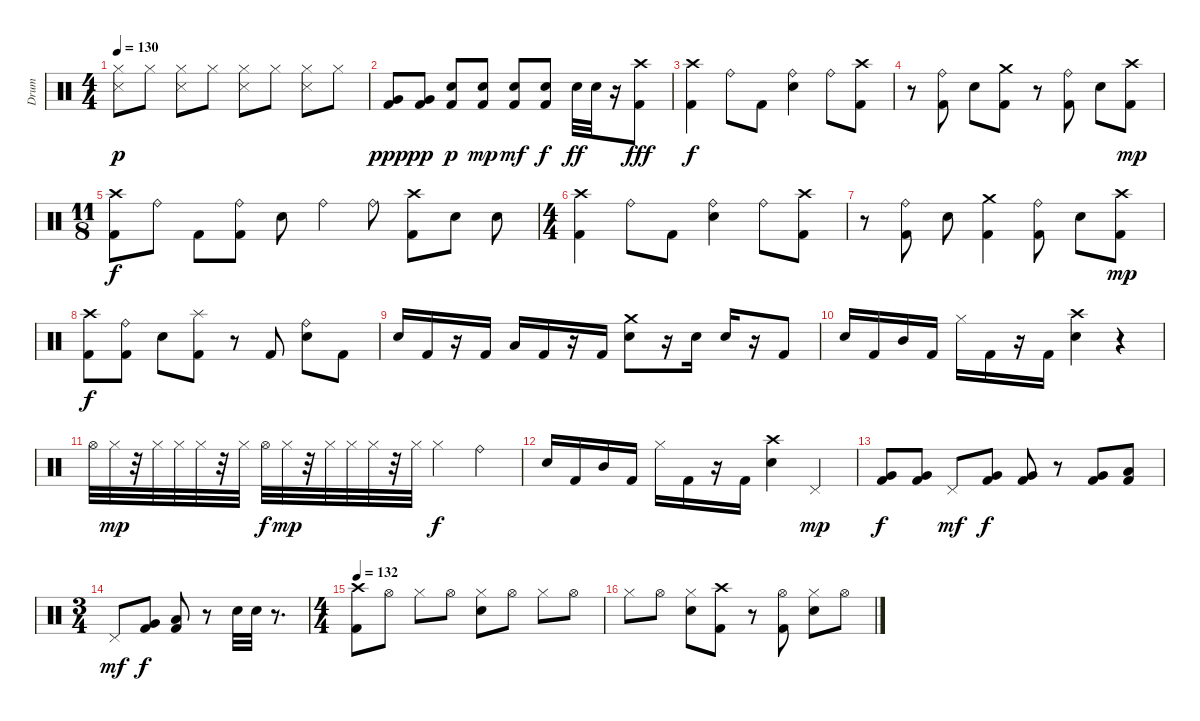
\track ("Drum" "Drum") {instrument percussion}
\staff {score}
\articulation defaults
\ts (4 4)
\tempo 130
\clef neutral
\ks c
("Snare (side stick) 3" "Hi-Hat (closed)").8{dy p} "Hi-Hat (closed)".8 ("Snare (side stick) 3" "Hi-Hat (closed)").8 "Hi-Hat (closed)".8 ("Snare (side stick) 3" "Hi-Hat (closed)").8 "Hi-Hat (closed)".8 ("Snare (side stick) 3" "Hi-Hat (closed)").8 "Hi-Hat (closed)".8 |
("Kick (hit) 2" "Very Low Tom (hit)").8{dy ppp} ("Very Low Tom (hit)" "Kick (hit) 2").8{dy pp} ("Electric Snare (hit)" "Kick (hit) 2").8{dy p} ("Electric Snare (hit)" "Kick (hit) 2").8{dy mp} ("Electric Snare (hit)" "Kick (hit) 2").8{dy mf} ("Electric Snare (hit)" "Kick (hit) 2").8{dy f} "Electric Snare (hit)".32{dy ff} "Electric Snare (hit)".32 r.16 ("Crash high (hit)" "Kick (hit) 2").8{dy fff} |
("Kick (hit) 2" "Crash high (hit)").4{dy f} "Ride (bell)".8 "Kick (hit) 2".8 ("Ride (bell)" "Electric Snare (hit)").4 "Ride (bell)".8 ("Kick (hit) 2" "Crash high (hit)").8 |
r.8 ("Kick (hit) 2" "Ride (bell)").8 "Electric Snare (hit)".8 ("Kick (hit) 2" "Crash medium (hit)").8 r.8 ("Kick (hit) 2" "Ride (bell)").8 "Electric Snare (hit)".8 ("Kick (hit) 2" "Crash high (hit)").8{dy mp} |
\ts (11 8)
("Crash high (hit)" "Kick (hit) 2").8{dy f} "Ride (bell)".8 "Kick (hit) 2".8 ("Kick (hit) 2" "Ride (bell)").8 "Electric Snare (hit)".8 "Ride (bell)".4 "Ride (bell)".8 ("Crash high (hit)" "Kick (hit) 2").8 "Electric Snare (hit)".8 "Electric Snare (hit)".8 |
\ts (4 4)
("Crash high (hit)" "Kick (hit) 2").4 "Ride (bell)".8 "Kick (hit) 2".8 ("Ride (bell)" "Electric Snare (hit)").4 "Ride (bell)".8 ("Kick (hit) 2" "Crash high (hit)").8 |
r.8 ("Kick (hit) 2" "Ride (bell)").8 "Electric Snare (hit)".8 ("Kick (hit) 2" "Crash medium (hit)").4 ("Kick (hit) 2" "Ride (bell)").8 "Electric Snare (hit)".8 ("Kick (hit) 2" "Crash high (hit)").8{dy mp} |
("Kick (hit) 2" "Crash high (hit)").8{dy f} ("Kick (hit) 2" "Ride (bell)").8 "Electric Snare (hit)".8 ("Kick (hit) 2" "Splash (hit)").8 r.8 "Kick (hit) 2".8 ("Electric Snare (hit)" "Ride (bell)").8 "Kick (hit) 2".8 |
"Electric Snare (hit)".16 "Kick (hit) 2".16 r.16 "Kick (hit) 2".16 "Low Tom (hit)".16 "Kick (hit) 2".16 r.16 "Kick (hit) 2".16 ("Electric Snare (hit)" "Crash medium (hit)").8 r.16 "Electric Snare (hit)".16 "Electric Snare (hit)".16 r.16 "Kick (hit) 2".8 |
"Electric Snare (hit)".16 "Kick (hit) 2".16 "Mid Tom (hit)".16 "Kick (hit) 2".16 "Hi-Hat (closed)".16 "Kick (hit) 2".16 r.16 "Kick (hit) 2".16 ("Crash high (hit)" "Electric Snare (hit)").4 r.4 |
"Hi-Hat (open)".32 "Hi-Hat (closed)".32{dy mp} r.32 "Hi-Hat (closed)".32 "Hi-Hat (closed)".32 "Hi-Hat (closed)".32 r.32 "Hi-Hat (closed)".32 "Hi-Hat (open)".32{dy f} "Hi-Hat (closed)".32{dy mp} r.32 "Hi-Hat (closed)".32 "Hi-Hat (closed)".32 "Hi-Hat (closed)".32 r.32 "Hi-Hat (closed)".32 "Hi-Hat (closed)".4{dy f} "Ride (bell)".4 |
"Electric Snare (hit)".16 "Kick (hit) 2".16 "Mid Tom (hit)".16 "Kick (hit) 2".16 "Hi-Hat (closed)".16 "Kick (hit) 2".16 r.16 "Kick (hit) 2".16 ("Crash high (hit)" "Electric Snare (hit)").4 "Pedal Hi-Hat (hit)".4{dy mp} |
("Kick (hit) 2" "Very Low Tom (hit)").8{dy f} ("Very Low Tom (hit)" "Kick (hit) 2").8 "Pedal Hi-Hat (hit)".8{dy mf} ("Very Low Tom (hit)" "Kick (hit) 2").8{dy f} ("Very Low Tom (hit)" "Kick (hit) 2").8 r.8 ("Very Low Tom (hit)" "Kick (hit) 2").8 ("Kick (hit) 2" "Low Floor Tom (hit)").8 |
\ts (3 4)
"Pedal Hi-Hat (hit)".8{dy mf} ("Very Low Tom (hit)" "Kick (hit) 2").8{dy f} ("Low Floor Tom (hit)" "Kick (hit) 2").8 r.8 "Electric Snare (hit)".32 "Electric Snare (hit)".32 r.8{d} |
\ts (4 4)
\tempo 132
("Crash high (hit)" "Kick (hit) 2").8 "Hi-Hat (open)".8 "Hi-Hat (closed)".8 "Hi-Hat (open)".8 ("Hi-Hat (closed)" "Electric Snare (hit)").8 "Hi-Hat (open)".8 "Hi-Hat (closed)".8 "Hi-Hat (open)".8 |
"Hi-Hat (closed)".8 "Hi-Hat (open)".8 ("Hi-Hat (closed)" "Electric Snare (hit)").8 ("Crash high (hit)" "Kick (hit) 2").8 r.8 ("Hi-Hat (open)" "Kick (hit) 2").8 ("Electric Snare (hit)" "Hi-Hat (closed)").8 "Hi-Hat (open)".8
